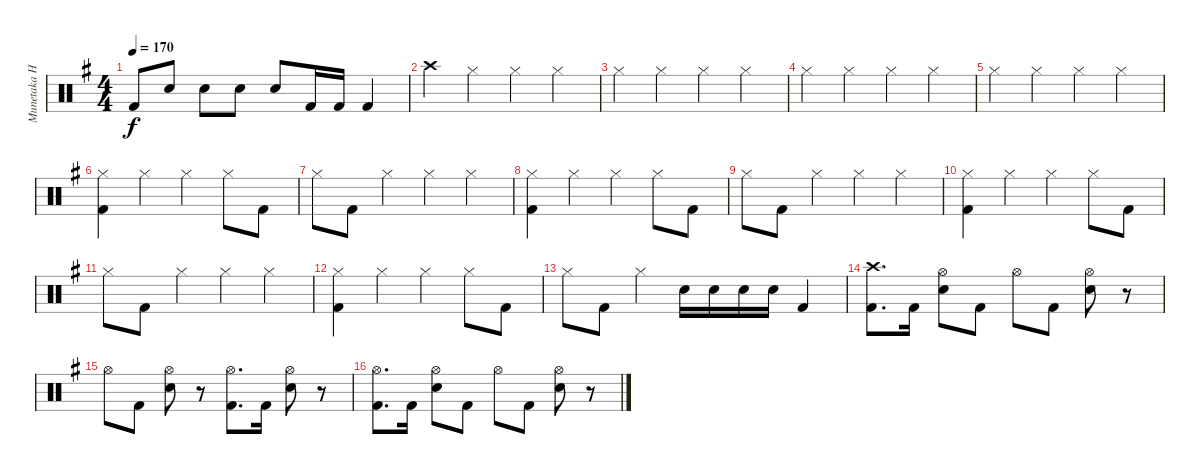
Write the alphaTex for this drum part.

\track ("Munetaka Higuchi" "Munetaka H") {instrument percussion}
\staff {score}
\articulation defaults
\ts (4 4)
\tempo 170
\clef neutral
\ks eminor "Kick (hit) 2".8{dy f} "Electric Snare (hit)".8 "Electric Snare (hit)".8 "Electric Snare (hit)".8 "Electric Snare (hit)".8 "Kick (hit) 2".16 "Kick (hit) 2".16 "Kick (hit) 2".4
|
"Crash high (hit)".4 "Hi-Hat (closed)".4 "Hi-Hat (closed)".4 "Hi-Hat (closed)".4 |
"Hi-Hat (closed)".4 "Hi-Hat (closed)".4 "Hi-Hat (closed)".4 "Hi-Hat (closed)".4 |
"Hi-Hat (closed)".4 "Hi-Hat (closed)".4 "Hi-Hat (closed)".4 "Hi-Hat (closed)".4 |
"Hi-Hat (closed)".4 "Hi-Hat (closed)".4 "Hi-Hat (closed)".4 "Hi-Hat (closed)".4 |
("Hi-Hat (closed)" "Kick (hit) 2").4 "Hi-Hat (closed)".4 "Hi-Hat (closed)".4 "Hi-Hat (closed)".8 "Kick (hit) 2".8 |
"Hi-Hat (closed)".8 "Kick (hit) 2".8 "Hi-Hat (closed)".4 "Hi-Hat (closed)".4 "Hi-Hat (closed)".4 |
("Hi-Hat (closed)" "Kick (hit) 2").4 "Hi-Hat (closed)".4 "Hi-Hat (closed)".4 "Hi-Hat (closed)".8 "Kick (hit) 2".8 |
"Hi-Hat (closed)".8 "Kick (hit) 2".8 "Hi-Hat (closed)".4 "Hi-Hat (closed)".4 "Hi-Hat (closed)".4 |
("Hi-Hat (closed)" "Kick (hit) 2").4 "Hi-Hat (closed)".4 "Hi-Hat (closed)".4 "Hi-Hat (closed)".8 "Kick (hit) 2".8 |
"Hi-Hat (closed)".8 "Kick (hit) 2".8 "Hi-Hat (closed)".4 "Hi-Hat (closed)".4 "Hi-Hat (closed)".4 |
("Hi-Hat (closed)" "Kick (hit) 2").4 "Hi-Hat (closed)".4 "Hi-Hat (closed)".4 "Hi-Hat (closed)".8 "Kick (hit) 2".8 |
"Hi-Hat (closed)".8 "Kick (hit) 2".8 "Hi-Hat (closed)".4 "Electric Snare (hit)".16 "Electric Snare (hit)".16 "Electric Snare (hit)".16 "Electric Snare (hit)".16 "Kick (hit) 2".4 |
("Crash high (hit)" "Kick (hit) 2").8{d} "Kick (hit) 2".16 ("Hi-Hat (open)" "Electric Snare (hit)").8 "Kick (hit) 2".8 "Hi-Hat (open)".8 "Kick (hit) 2".8 ("Hi-Hat (open)" "Electric Snare (hit)").8 r.8 |
"Hi-Hat (open)".8 "Kick (hit) 2".8 ("Hi-Hat (open)" "Electric Snare (hit)").8 r.8 ("Hi-Hat (open)" "Kick (hit) 2").8{d} "Kick (hit) 2".16 ("Hi-Hat (open)" "Electric Snare (hit)").8 r.8 |
("Hi-Hat (open)" "Kick (hit) 2").8{d} "Kick (hit) 2".16 ("Hi-Hat (open)" "Electric Snare (hit)").8 "Kick (hit) 2".8 "Hi-Hat (open)".8 "Kick (hit) 2".8 ("Hi-Hat (open)" "Electric Snare (hit)").8 r.8
